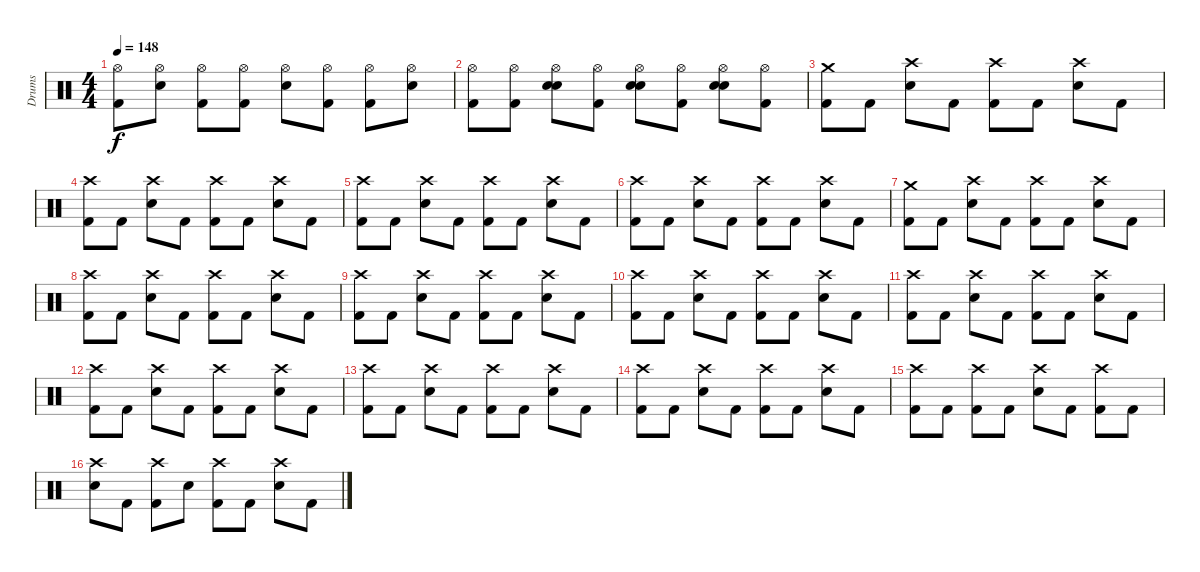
\track ("Drums" "Drums") {instrument percussion}
\staff {score}
\articulation defaults
\ts (4 4)
\tempo 148
\clef neutral
\ks c
("Hi-Hat (open)" "Kick (hit) 2").8{dy f} ("Hi-Hat (open)" "Snare (hit) 2").8 ("Hi-Hat (open)" "Kick (hit) 2").8 ("Hi-Hat (open)" "Kick (hit) 2").8 ("Hi-Hat (open)" "Snare (hit) 2").8 ("Hi-Hat (open)" "Kick (hit) 2").8 ("Hi-Hat (open)" "Kick (hit) 2").8 ("Hi-Hat (open)" "Snare (hit) 2").8 |
("Hi-Hat (open)" "Kick (hit) 2").8 ("Hi-Hat (open)" "Kick (hit) 2").8 ("Hi-Hat (open)" "Electric Snare (hit)" "Snare (hit) 2").8 ("Hi-Hat (open)" "Kick (hit) 2").8 ("Hi-Hat (open)" "Electric Snare (hit)" "Snare (hit) 2").8 ("Hi-Hat (open)" "Kick (hit) 2").8 ("Hi-Hat (open)" "Electric Snare (hit)" "Snare (hit) 2").8 ("Hi-Hat (open)" "Kick (hit) 2").8 |
("Crash medium (hit)" "Kick (hit) 2").8 "Kick (hit) 2".8 ("Crash high (hit)" "Snare (hit) 2").8 "Kick (hit) 2".8 ("Crash high (hit)" "Kick (hit) 2").8 "Kick (hit) 2".8 ("Crash high (hit)" "Snare (hit) 2").8 "Kick (hit) 2".8 |
("Crash high (hit)" "Kick (hit) 2").8 "Kick (hit) 2".8 ("Crash high (hit)" "Snare (hit) 2").8 "Kick (hit) 2".8 ("Crash high (hit)" "Kick (hit) 2").8 "Kick (hit) 2".8 ("Crash high (hit)" "Snare (hit) 2").8 "Kick (hit) 2".8 |
("Crash high (hit)" "Kick (hit) 2").8 "Kick (hit) 2".8 ("Crash high (hit)" "Snare (hit) 2").8 "Kick (hit) 2".8 ("Crash high (hit)" "Kick (hit) 2").8 "Kick (hit) 2".8 ("Crash high (hit)" "Snare (hit) 2").8 "Kick (hit) 2".8 |
("Crash high (hit)" "Kick (hit) 2").8 "Kick (hit) 2".8 ("Crash high (hit)" "Snare (hit) 2").8 "Kick (hit) 2".8 ("Crash high (hit)" "Kick (hit) 2").8 "Kick (hit) 2".8 ("Crash high (hit)" "Snare (hit) 2").8 "Kick (hit) 2".8 |
("Crash medium (hit)" "Kick (hit) 2").8 "Kick (hit) 2".8 ("Crash high (hit)" "Snare (hit) 2").8 "Kick (hit) 2".8 ("Crash high (hit)" "Kick (hit) 2").8 "Kick (hit) 2".8 ("Crash high (hit)" "Snare (hit) 2").8 "Kick (hit) 2".8 |
("Crash high (hit)" "Kick (hit) 2").8 "Kick (hit) 2".8 ("Crash high (hit)" "Snare (hit) 2").8 "Kick (hit) 2".8 ("Crash high (hit)" "Kick (hit) 2").8 "Kick (hit) 2".8 ("Crash high (hit)" "Snare (hit) 2").8 "Kick (hit) 2".8 |
("Crash high (hit)" "Kick (hit) 2").8 "Kick (hit) 2".8 ("Crash high (hit)" "Snare (hit) 2").8 "Kick (hit) 2".8 ("Crash high (hit)" "Kick (hit) 2").8 "Kick (hit) 2".8 ("Crash high (hit)" "Snare (hit) 2").8 "Kick (hit) 2".8 |
("Crash high (hit)" "Kick (hit) 2").8 "Kick (hit) 2".8 ("Crash high (hit)" "Snare (hit) 2").8 "Kick (hit) 2".8 ("Crash high (hit)" "Kick (hit) 2").8 "Kick (hit) 2".8 ("Crash high (hit)" "Snare (hit) 2").8 "Kick (hit) 2".8 |
("Crash high (hit)" "Kick (hit) 2").8 "Kick (hit) 2".8 ("Crash high (hit)" "Snare (hit) 2").8 "Kick (hit) 2".8 ("Crash high (hit)" "Kick (hit) 2").8 "Kick (hit) 2".8 ("Crash high (hit)" "Snare (hit) 2").8 "Kick (hit) 2".8 |
("Crash high (hit)" "Kick (hit) 2").8 "Kick (hit) 2".8 ("Crash high (hit)" "Snare (hit) 2").8 "Kick (hit) 2".8 ("Crash high (hit)" "Kick (hit) 2").8 "Kick (hit) 2".8 ("Crash high (hit)" "Snare (hit) 2").8 "Kick (hit) 2".8 |
("Crash high (hit)" "Kick (hit) 2").8 "Kick (hit) 2".8 ("Crash high (hit)" "Snare (hit) 2").8 "Kick (hit) 2".8 ("Crash high (hit)" "Kick (hit) 2").8 "Kick (hit) 2".8 ("Crash high (hit)" "Snare (hit) 2").8 "Kick (hit) 2".8 |
("Crash high (hit)" "Kick (hit) 2").8 "Kick (hit) 2".8 ("Crash high (hit)" "Snare (hit) 2").8 "Kick (hit) 2".8 ("Crash high (hit)" "Kick (hit) 2").8 "Kick (hit) 2".8 ("Crash high (hit)" "Snare (hit) 2").8 "Kick (hit) 2".8 |
("Crash high (hit)" "Kick (hit) 2").8 "Kick (hit) 2".8 ("Crash high (hit)" "Kick (hit) 2").8 "Kick (hit) 2".8 ("Crash high (hit)" "Snare (hit) 2").8 "Kick (hit) 2".8 ("Crash high (hit)" "Kick (hit) 2").8 "Kick (hit) 2".8 |
("Crash high (hit)" "Snare (hit) 2").8 "Kick (hit) 2".8 ("Crash high (hit)" "Kick (hit) 2").8 "Snare (hit) 2".8 ("Crash high (hit)" "Kick (hit) 2").8 "Kick (hit) 2".8 ("Crash high (hit)" "Snare (hit) 2").8 "Kick (hit) 2".8
